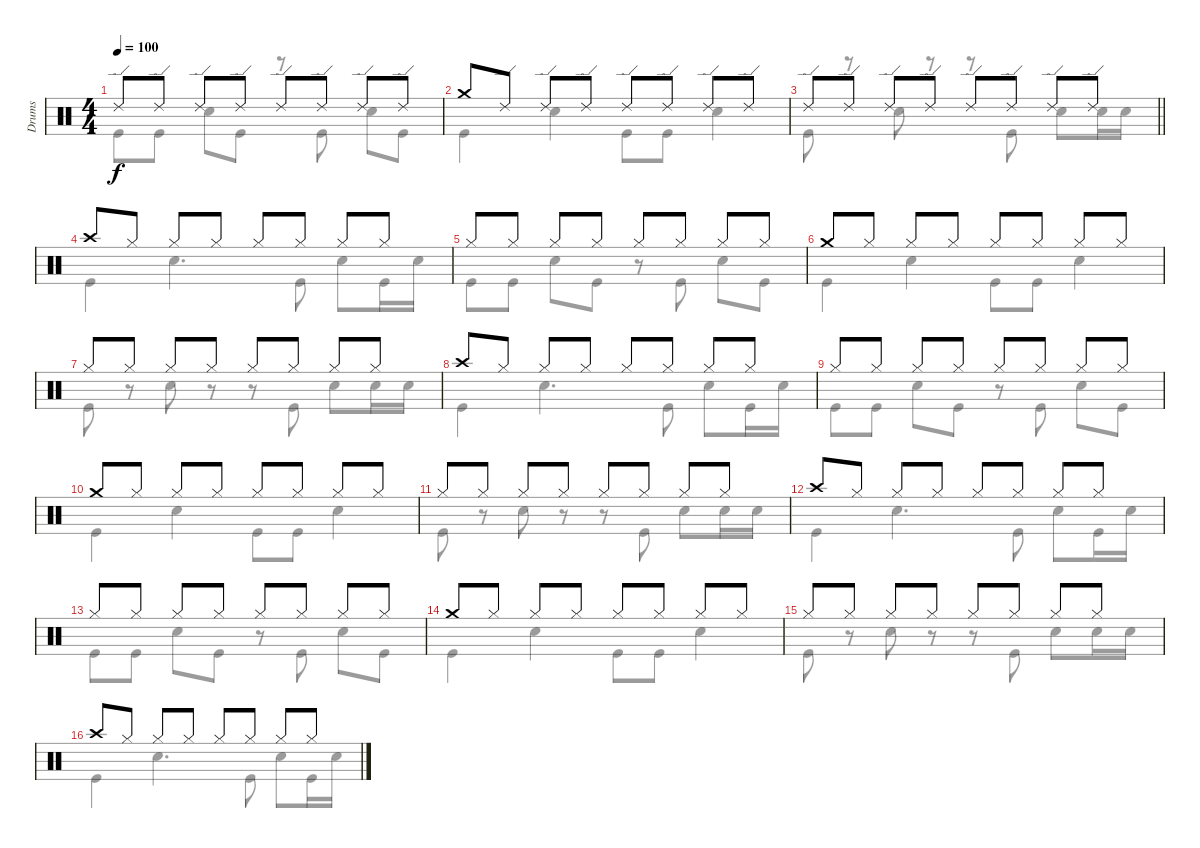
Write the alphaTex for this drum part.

\track ("Drums" "Drums") {instrument percussion}
\staff {score}
\articulation defaults
\voice
\ts (4 4)
\tempo 100
\clef neutral
\ks c "Ride (edge) 2".8{dy f} "Ride (edge) 2".8 "Ride (edge) 2".8 "Ride (edge) 2".8 "Ride (edge) 2".8 "Ride (edge) 2".8 "Ride (edge) 2".8 "Ride (edge) 2".8
|
"Crash medium (hit)".8 "Ride (edge) 2".8 "Ride (edge) 2".8 "Ride (edge) 2".8 "Ride (edge) 2".8 "Ride (edge) 2".8 "Ride (edge) 2".8 "Ride (edge) 2".8 |
\barLineRight lightlight "Ride (edge) 2".8 "Ride (edge) 2".8 "Ride (edge) 2".8 "Ride (edge) 2".8 "Ride (edge) 2".8 "Ride (edge) 2".8 "Ride (edge) 2".8 "Ride (edge) 2".8
|
"Crash high (hit)".8 "Hi-Hat (closed)".8 "Hi-Hat (closed)".8 "Hi-Hat (closed)".8 "Hi-Hat (closed)".8 "Hi-Hat (closed)".8 "Hi-Hat (closed)".8 "Hi-Hat (closed)".8 |
"Hi-Hat (closed)".8 "Hi-Hat (closed)".8 "Hi-Hat (closed)".8 "Hi-Hat (closed)".8 "Hi-Hat (closed)".8 "Hi-Hat (closed)".8 "Hi-Hat (closed)".8 "Hi-Hat (closed)".8 |
"Crash medium (hit)".8 "Hi-Hat (closed)".8 "Hi-Hat (closed)".8 "Hi-Hat (closed)".8 "Hi-Hat (closed)".8 "Hi-Hat (closed)".8 "Hi-Hat (closed)".8 "Hi-Hat (closed)".8 |
"Hi-Hat (closed)".8 "Hi-Hat (closed)".8 "Hi-Hat (closed)".8 "Hi-Hat (closed)".8 "Hi-Hat (closed)".8 "Hi-Hat (closed)".8 "Hi-Hat (closed)".8 "Hi-Hat (closed)".8 |
"Crash high (hit)".8 "Hi-Hat (closed)".8 "Hi-Hat (closed)".8 "Hi-Hat (closed)".8 "Hi-Hat (closed)".8 "Hi-Hat (closed)".8 "Hi-Hat (closed)".8 "Hi-Hat (closed)".8 |
"Hi-Hat (closed)".8 "Hi-Hat (closed)".8 "Hi-Hat (closed)".8 "Hi-Hat (closed)".8 "Hi-Hat (closed)".8 "Hi-Hat (closed)".8 "Hi-Hat (closed)".8 "Hi-Hat (closed)".8 |
"Crash medium (hit)".8 "Hi-Hat (closed)".8 "Hi-Hat (closed)".8 "Hi-Hat (closed)".8 "Hi-Hat (closed)".8 "Hi-Hat (closed)".8 "Hi-Hat (closed)".8 "Hi-Hat (closed)".8 |
"Hi-Hat (closed)".8 "Hi-Hat (closed)".8 "Hi-Hat (closed)".8 "Hi-Hat (closed)".8 "Hi-Hat (closed)".8 "Hi-Hat (closed)".8 "Hi-Hat (closed)".8 "Hi-Hat (closed)".8 |
"Crash high (hit)".8 "Hi-Hat (closed)".8 "Hi-Hat (closed)".8 "Hi-Hat (closed)".8 "Hi-Hat (closed)".8 "Hi-Hat (closed)".8 "Hi-Hat (closed)".8 "Hi-Hat (closed)".8 |
"Hi-Hat (closed)".8 "Hi-Hat (closed)".8 "Hi-Hat (closed)".8 "Hi-Hat (closed)".8 "Hi-Hat (closed)".8 "Hi-Hat (closed)".8 "Hi-Hat (closed)".8 "Hi-Hat (closed)".8 |
"Crash medium (hit)".8 "Hi-Hat (closed)".8 "Hi-Hat (closed)".8 "Hi-Hat (closed)".8 "Hi-Hat (closed)".8 "Hi-Hat (closed)".8 "Hi-Hat (closed)".8 "Hi-Hat (closed)".8 |
"Hi-Hat (closed)".8 "Hi-Hat (closed)".8 "Hi-Hat (closed)".8 "Hi-Hat (closed)".8 "Hi-Hat (closed)".8 "Hi-Hat (closed)".8 "Hi-Hat (closed)".8 "Hi-Hat (closed)".8 |
"Crash high (hit)".8 "Hi-Hat (closed)".8 "Hi-Hat (closed)".8 "Hi-Hat (closed)".8 "Hi-Hat (closed)".8 "Hi-Hat (closed)".8 "Hi-Hat (closed)".8 "Hi-Hat (closed)".8
\voice
\clef neutral
\ottava regular
\simile none
\ks c "Kick (hit)".8{dy f} "Kick (hit)".8 "Snare (hit) 2".8 "Kick (hit)".8
r.8 "Kick (hit)".8 "Snare (hit) 2".8 "Kick (hit)".8 |
"Kick (hit)".4 "Snare (hit) 2".4 "Kick (hit)".8 "Kick (hit)".8 "Snare (hit) 2".4 |
\barLineRight lightlight "Kick (hit)".8
r.8 "Snare (hit) 2".8 r.8 r.8 "Kick (hit)".8 "Snare (hit) 2".8 "Snare (hit) 2".16 "Snare (hit) 2".16 |
"Kick (hit)".4 "Snare (hit) 2".4{d} "Kick (hit)".8 "Snare (hit) 2".8 "Kick (hit)".16 "Snare (hit) 2".16 |
"Kick (hit)".8 "Kick (hit)".8 "Snare (hit) 2".8 "Kick (hit)".8 r.8 "Kick (hit)".8 "Snare (hit) 2".8 "Kick (hit)".8 |
"Kick (hit)".4 "Snare (hit) 2".4 "Kick (hit)".8 "Kick (hit)".8 "Snare (hit) 2".4 |
"Kick (hit)".8 r.8 "Snare (hit) 2".8 r.8 r.8 "Kick (hit)".8 "Snare (hit) 2".8 "Snare (hit) 2".16 "Snare (hit) 2".16 |
"Kick (hit)".4 "Snare (hit) 2".4{d} "Kick (hit)".8 "Snare (hit) 2".8 "Kick (hit)".16 "Snare (hit) 2".16 |
"Kick (hit)".8 "Kick (hit)".8 "Snare (hit) 2".8 "Kick (hit)".8 r.8 "Kick (hit)".8 "Snare (hit) 2".8 "Kick (hit)".8 |
"Kick (hit)".4 "Snare (hit) 2".4 "Kick (hit)".8 "Kick (hit)".8 "Snare (hit) 2".4 |
"Kick (hit)".8 r.8 "Snare (hit) 2".8 r.8 r.8 "Kick (hit)".8 "Snare (hit) 2".8 "Snare (hit) 2".16 "Snare (hit) 2".16 |
"Kick (hit)".4 "Snare (hit) 2".4{d} "Kick (hit)".8 "Snare (hit) 2".8 "Kick (hit)".16 "Snare (hit) 2".16 |
"Kick (hit)".8 "Kick (hit)".8 "Snare (hit) 2".8 "Kick (hit)".8 r.8 "Kick (hit)".8 "Snare (hit) 2".8 "Kick (hit)".8 |
"Kick (hit)".4 "Snare (hit) 2".4 "Kick (hit)".8 "Kick (hit)".8 "Snare (hit) 2".4 |
"Kick (hit)".8 r.8 "Snare (hit) 2".8 r.8 r.8 "Kick (hit)".8 "Snare (hit) 2".8 "Snare (hit) 2".16 "Snare (hit) 2".16 |
"Kick (hit)".4 "Snare (hit) 2".4{d} "Kick (hit)".8 "Snare (hit) 2".8 "Kick (hit)".16 "Snare (hit) 2".16
